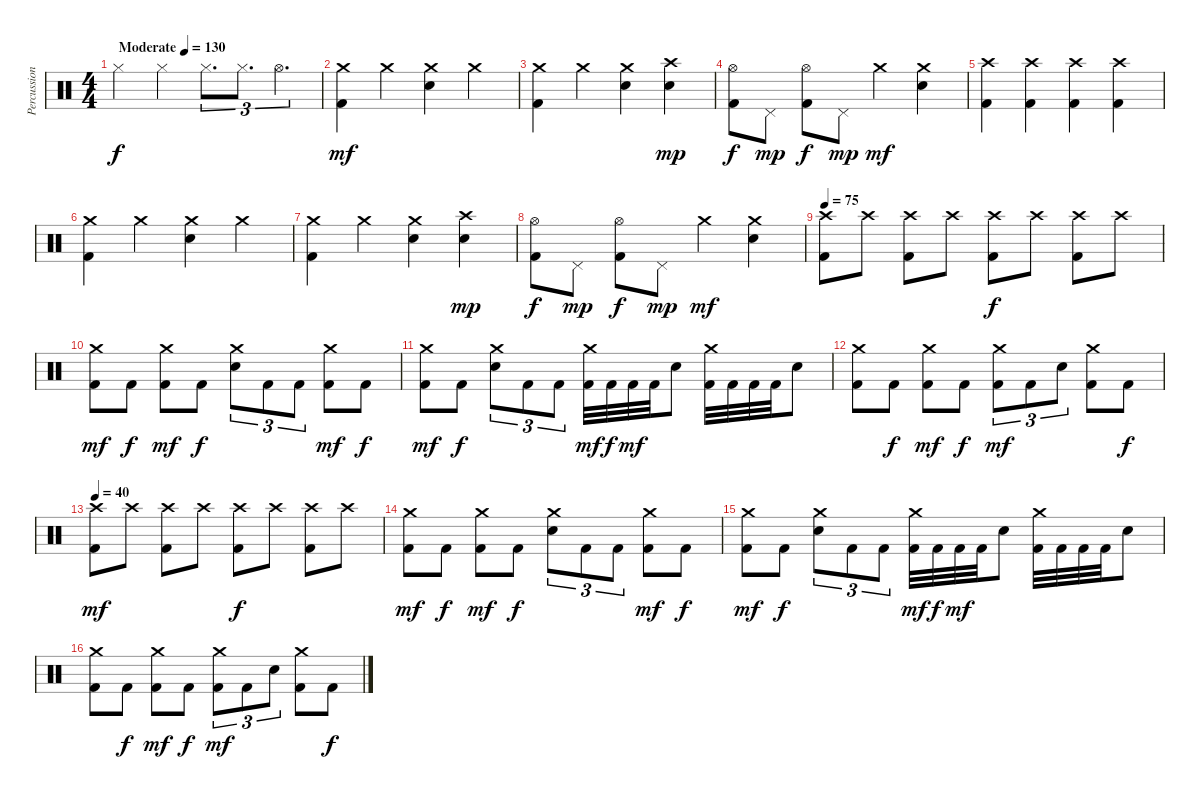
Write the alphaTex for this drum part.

\track ("Percussion" "Percussion") {instrument percussion}
\staff {score}
\articulation defaults
\ts (4 4)
\tempo (130 "Moderate")
\clef neutral
\ks c "Hi-Hat (closed)".4{dy f} "Hi-Hat (closed)".4 "Hi-Hat (closed)".8{d tu (3 2)} "Hi-Hat (closed)".8{d tu (3 2)} "Hi-Hat (open)".4{d tu (3 2)}
|
("Crash medium (hit)" "Kick (hit) 2").4{dy mf} "Crash medium (hit)".4 ("Crash medium (hit)" "Snare (hit) 2").4 "Crash medium (hit)".4 |
("Crash medium (hit)" "Kick (hit) 2").4 "Crash medium (hit)".4 ("Crash medium (hit)" "Snare (hit) 2").4 ("Crash high (hit)" "Snare (hit) 2").4{dy mp} |
("Hi-Hat (open)" "Kick (hit) 2").8{dy f} "Pedal Hi-Hat (hit)".8{dy mp} ("Hi-Hat (open)" "Kick (hit) 2").8{dy f} "Pedal Hi-Hat (hit)".8{dy mp} "Crash medium (hit)".4{dy mf} ("Crash medium (hit)" "Snare (hit) 2").4 |
("Crash high (hit)" "Kick (hit) 2").4 ("Crash high (hit)" "Kick (hit) 2").4 ("Crash high (hit)" "Kick (hit) 2").4 ("Crash high (hit)" "Kick (hit) 2").4 |
("Crash medium (hit)" "Kick (hit) 2").4 "Crash medium (hit)".4 ("Crash medium (hit)" "Snare (hit) 2").4 "Crash medium (hit)".4 |
("Crash medium (hit)" "Kick (hit) 2").4 "Crash medium (hit)".4 ("Crash medium (hit)" "Snare (hit) 2").4 ("Crash high (hit)" "Snare (hit) 2").4{dy mp} |
("Hi-Hat (open)" "Kick (hit) 2").8{dy f} "Pedal Hi-Hat (hit)".8{dy mp} ("Hi-Hat (open)" "Kick (hit) 2").8{dy f} "Pedal Hi-Hat (hit)".8{dy mp} "Crash medium (hit)".4{dy mf} ("Crash medium (hit)" "Snare (hit) 2").4 |
\tempo 75
("Crash high (hit)" "Kick (hit) 2").8 "Crash high (hit)".8 ("Crash high (hit)" "Kick (hit) 2").8 "Crash high (hit)".8 ("Crash high (hit)" "Kick (hit) 2").8{dy f} "Crash high (hit)".8 ("Crash high (hit)" "Kick (hit) 2").8 "Crash high (hit)".8 |
("Crash medium (hit)" "Kick (hit) 2").8{dy mf} "Kick (hit) 2".8{dy f} ("Crash medium (hit)" "Kick (hit) 2").8{dy mf} "Kick (hit) 2".8{dy f} ("Crash medium (hit)" "Snare (hit) 2").8{tu (3 2)} "Kick (hit) 2".8{tu (3 2)} "Kick (hit) 2".8{tu (3 2)} ("Crash medium (hit)" "Kick (hit) 2").8{dy mf} "Kick (hit) 2".8{dy f} |
("Crash medium (hit)" "Kick (hit) 2").8{dy mf} "Kick (hit) 2".8{dy f} ("Crash medium (hit)" "Snare (hit) 2").8{tu (3 2)} "Kick (hit) 2".8{tu (3 2)} "Kick (hit) 2".8{tu (3 2)} ("Crash medium (hit)" "Kick (hit) 2").32{dy mf} "Kick (hit) 2".32{dy f} "Kick (hit) 2".32{dy mf} "Kick (hit) 2".32 "Snare (hit) 2".8 ("Crash medium (hit)" "Kick (hit) 2").32 "Kick (hit) 2".32 "Kick (hit) 2".32 "Kick (hit) 2".32 "Snare (hit) 2".8 |
("Crash medium (hit)" "Kick (hit) 2").8 "Kick (hit) 2".8{dy f} ("Crash medium (hit)" "Kick (hit) 2").8{dy mf} "Kick (hit) 2".8{dy f} ("Crash medium (hit)" "Kick (hit) 2").8{tu (3 2) dy mf} "Kick (hit) 2".8{tu (3 2)} "Snare (hit) 2".8{tu (3 2)} ("Crash medium (hit)" "Kick (hit) 2").8 "Kick (hit) 2".8{dy f} |
\tempo 40
("Crash high (hit)" "Kick (hit) 2").8{dy mf} "Crash high (hit)".8 ("Crash high (hit)" "Kick (hit) 2").8 "Crash high (hit)".8 ("Crash high (hit)" "Kick (hit) 2").8{dy f} "Crash high (hit)".8 ("Crash high (hit)" "Kick (hit) 2").8 "Crash high (hit)".8 |
("Crash medium (hit)" "Kick (hit) 2").8{dy mf} "Kick (hit) 2".8{dy f} ("Crash medium (hit)" "Kick (hit) 2").8{dy mf} "Kick (hit) 2".8{dy f} ("Crash medium (hit)" "Snare (hit) 2").8{tu (3 2)} "Kick (hit) 2".8{tu (3 2)} "Kick (hit) 2".8{tu (3 2)} ("Crash medium (hit)" "Kick (hit) 2").8{dy mf} "Kick (hit) 2".8{dy f} |
("Crash medium (hit)" "Kick (hit) 2").8{dy mf} "Kick (hit) 2".8{dy f} ("Crash medium (hit)" "Snare (hit) 2").8{tu (3 2)} "Kick (hit) 2".8{tu (3 2)} "Kick (hit) 2".8{tu (3 2)} ("Crash medium (hit)" "Kick (hit) 2").32{dy mf} "Kick (hit) 2".32{dy f} "Kick (hit) 2".32{dy mf} "Kick (hit) 2".32 "Snare (hit) 2".8 ("Crash medium (hit)" "Kick (hit) 2").32 "Kick (hit) 2".32 "Kick (hit) 2".32 "Kick (hit) 2".32 "Snare (hit) 2".8 |
("Crash medium (hit)" "Kick (hit) 2").8 "Kick (hit) 2".8{dy f} ("Crash medium (hit)" "Kick (hit) 2").8{dy mf} "Kick (hit) 2".8{dy f} ("Crash medium (hit)" "Kick (hit) 2").8{tu (3 2) dy mf} "Kick (hit) 2".8{tu (3 2)} "Snare (hit) 2".8{tu (3 2)} ("Crash medium (hit)" "Kick (hit) 2").8 "Kick (hit) 2".8{dy f}
